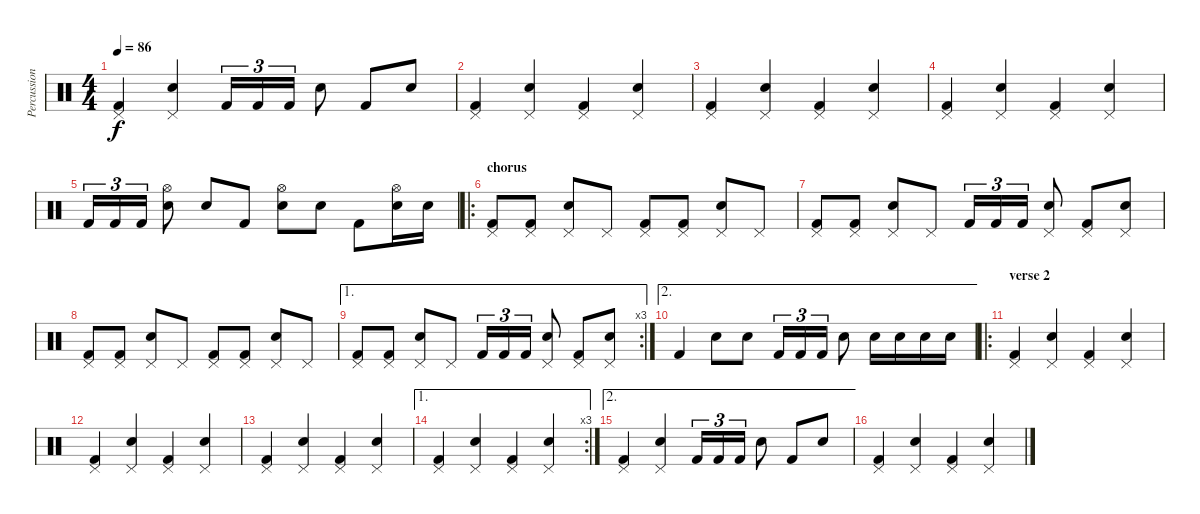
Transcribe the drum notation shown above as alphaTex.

\track ("Percussion" "Percussion") {instrument percussion}
\staff {score}
\articulation defaults
\ts (4 4)
\tempo 86
\clef neutral
\ks c
("Pedal Hi-Hat (hit)" "Kick (hit) 2").4{dy f} ("Pedal Hi-Hat (hit)" "Electric Snare (hit)").4 "Kick (hit) 2".16{tu (3 2)} "Kick (hit) 2".16{tu (3 2)} "Kick (hit) 2".16{tu (3 2)} "Electric Snare (hit)".8 "Kick (hit) 2".8 "Electric Snare (hit)".8 |
("Pedal Hi-Hat (hit)" "Kick (hit) 2").4 ("Pedal Hi-Hat (hit)" "Electric Snare (hit)").4 ("Pedal Hi-Hat (hit)" "Kick (hit) 2").4 ("Pedal Hi-Hat (hit)" "Electric Snare (hit)").4 |
("Pedal Hi-Hat (hit)" "Kick (hit) 2").4 ("Pedal Hi-Hat (hit)" "Electric Snare (hit)").4 ("Pedal Hi-Hat (hit)" "Kick (hit) 2").4 ("Pedal Hi-Hat (hit)" "Electric Snare (hit)").4 |
("Pedal Hi-Hat (hit)" "Kick (hit) 2").4 ("Pedal Hi-Hat (hit)" "Electric Snare (hit)").4 ("Pedal Hi-Hat (hit)" "Kick (hit) 2").4 ("Pedal Hi-Hat (hit)" "Electric Snare (hit)").4 |
"Kick (hit) 2".16{tu (3 2)} "Kick (hit) 2".16{tu (3 2)} "Kick (hit) 2".16{tu (3 2)} ("Hi-Hat (open)" "Electric Snare (hit)").8 "Electric Snare (hit)".8 "Kick (hit) 2".8 ("Hi-Hat (open)" "Electric Snare (hit)").8 "Electric Snare (hit)".8 "Kick (hit) 2".8 ("Hi-Hat (open)" "Electric Snare (hit)").16 "Electric Snare (hit)".16 |
\ro
\section ("" "chorus")
("Pedal Hi-Hat (hit)" "Kick (hit) 2").8 ("Pedal Hi-Hat (hit)" "Kick (hit) 2").8 ("Pedal Hi-Hat (hit)" "Electric Snare (hit)").8 "Pedal Hi-Hat (hit)".8 ("Pedal Hi-Hat (hit)" "Kick (hit) 2").8 ("Pedal Hi-Hat (hit)" "Kick (hit) 2").8 ("Pedal Hi-Hat (hit)" "Electric Snare (hit)").8 "Pedal Hi-Hat (hit)".8 |
("Pedal Hi-Hat (hit)" "Kick (hit) 2").8 ("Pedal Hi-Hat (hit)" "Kick (hit) 2").8 ("Pedal Hi-Hat (hit)" "Electric Snare (hit)").8 "Pedal Hi-Hat (hit)".8 "Kick (hit) 2".16{tu (3 2)} "Kick (hit) 2".16{tu (3 2)} "Kick (hit) 2".16{tu (3 2)} ("Pedal Hi-Hat (hit)" "Electric Snare (hit)").8 ("Pedal Hi-Hat (hit)" "Kick (hit) 2").8 ("Pedal Hi-Hat (hit)" "Electric Snare (hit)").8 |
("Pedal Hi-Hat (hit)" "Kick (hit) 2").8 ("Pedal Hi-Hat (hit)" "Kick (hit) 2").8 ("Pedal Hi-Hat (hit)" "Electric Snare (hit)").8 "Pedal Hi-Hat (hit)".8 ("Pedal Hi-Hat (hit)" "Kick (hit) 2").8 ("Pedal Hi-Hat (hit)" "Kick (hit) 2").8 ("Pedal Hi-Hat (hit)" "Electric Snare (hit)").8 "Pedal Hi-Hat (hit)".8 |
\ae 1
\rc 3
("Pedal Hi-Hat (hit)" "Kick (hit) 2").8 ("Pedal Hi-Hat (hit)" "Kick (hit) 2").8 ("Pedal Hi-Hat (hit)" "Electric Snare (hit)").8 "Pedal Hi-Hat (hit)".8 "Kick (hit) 2".16{tu (3 2)} "Kick (hit) 2".16{tu (3 2)} "Kick (hit) 2".16{tu (3 2)} ("Pedal Hi-Hat (hit)" "Electric Snare (hit)").8 ("Pedal Hi-Hat (hit)" "Kick (hit) 2").8 ("Pedal Hi-Hat (hit)" "Electric Snare (hit)").8 |
\ae 2 "Kick (hit) 2".4 "Electric Snare (hit)".8 "Electric Snare (hit)".8 "Kick (hit) 2".16{tu (3 2)} "Kick (hit) 2".16{tu (3 2)} "Kick (hit) 2".16{tu (3 2)} "Electric Snare (hit)".8 "Electric Snare (hit)".16 "Electric Snare (hit)".16 "Electric Snare (hit)".16 "Electric Snare (hit)".16
|
\ro
\section ("" "verse 2")
("Pedal Hi-Hat (hit)" "Kick (hit) 2").4 ("Pedal Hi-Hat (hit)" "Electric Snare (hit)").4 ("Pedal Hi-Hat (hit)" "Kick (hit) 2").4 ("Pedal Hi-Hat (hit)" "Electric Snare (hit)").4 |
("Pedal Hi-Hat (hit)" "Kick (hit) 2").4 ("Pedal Hi-Hat (hit)" "Electric Snare (hit)").4 ("Pedal Hi-Hat (hit)" "Kick (hit) 2").4 ("Pedal Hi-Hat (hit)" "Electric Snare (hit)").4 |
("Pedal Hi-Hat (hit)" "Kick (hit) 2").4 ("Pedal Hi-Hat (hit)" "Electric Snare (hit)").4 ("Pedal Hi-Hat (hit)" "Kick (hit) 2").4 ("Pedal Hi-Hat (hit)" "Electric Snare (hit)").4 |
\ae 1
\rc 3
("Pedal Hi-Hat (hit)" "Kick (hit) 2").4 ("Pedal Hi-Hat (hit)" "Electric Snare (hit)").4 ("Pedal Hi-Hat (hit)" "Kick (hit) 2").4 ("Pedal Hi-Hat (hit)" "Electric Snare (hit)").4 |
\ae 2
("Pedal Hi-Hat (hit)" "Kick (hit) 2").4 ("Pedal Hi-Hat (hit)" "Electric Snare (hit)").4 "Kick (hit) 2".16{tu (3 2)} "Kick (hit) 2".16{tu (3 2)} "Kick (hit) 2".16{tu (3 2)} "Electric Snare (hit)".8 "Kick (hit) 2".8 "Electric Snare (hit)".8 |
("Pedal Hi-Hat (hit)" "Kick (hit) 2").4 ("Pedal Hi-Hat (hit)" "Electric Snare (hit)").4 ("Pedal Hi-Hat (hit)" "Kick (hit) 2").4 ("Pedal Hi-Hat (hit)" "Electric Snare (hit)").4
